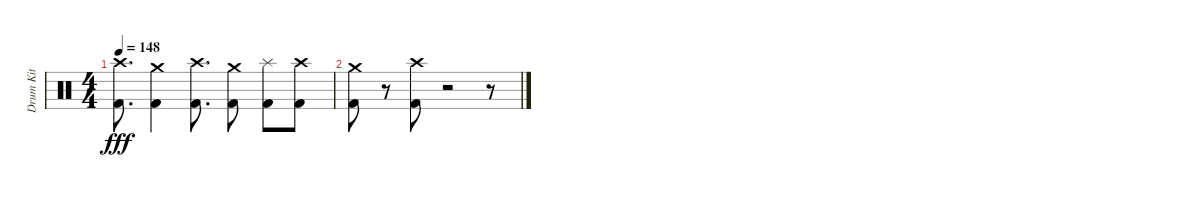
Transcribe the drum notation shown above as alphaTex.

\track ("Drum Kit" "Drum Kit") {instrument percussion}
\staff {score}
\articulation defaults
\ts (4 4)
\tempo 148
\clef neutral
\ks c
("Kick (hit) 2" "Crash high (hit)").8{d dy fff} ("Kick (hit) 2" "Crash medium (hit)").4 ("Kick (hit) 2" "Crash high (hit)").8{d} ("Kick (hit) 2" "Crash medium (hit)").8 ("Kick (hit) 2" "Splash (hit)").8 ("Kick (hit) 2" "Crash high (hit)").8 |
("Crash medium (hit)" "Kick (hit) 2").8 r.8 ("Crash high (hit)" "Kick (hit) 2").8 r.2 r.8
